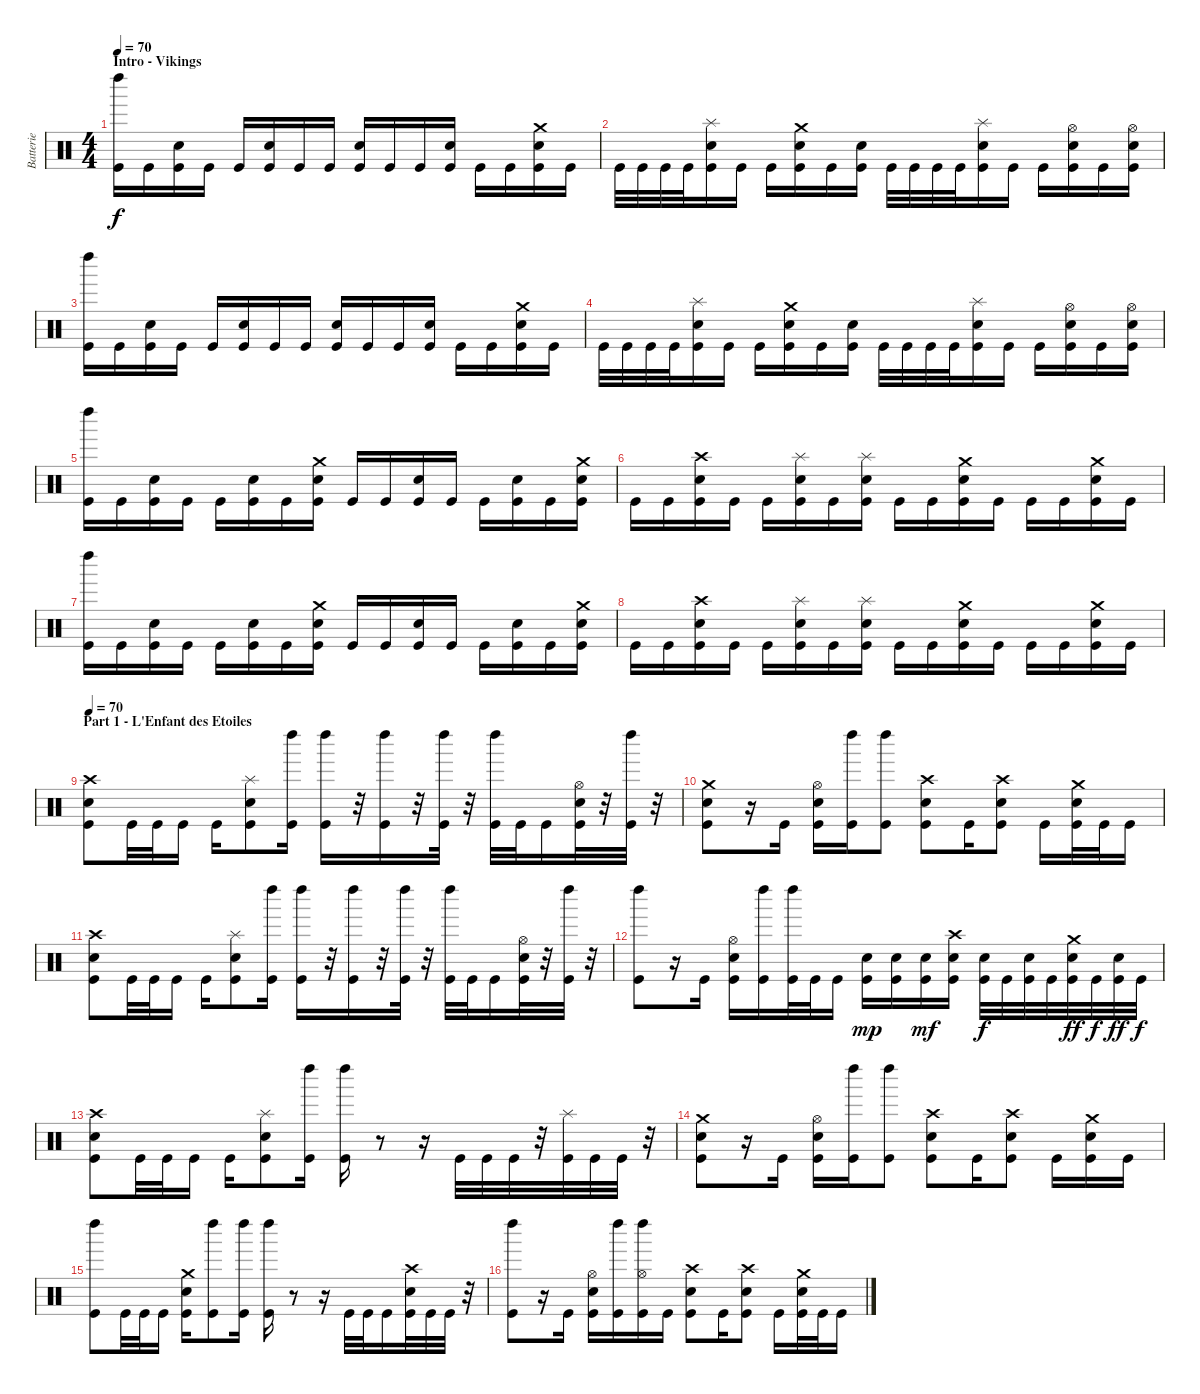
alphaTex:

\track ("Batterie" "Batterie") {instrument percussion}
\staff {score}
\articulation defaults
\ts (4 4)
\section ("" "Intro - Vikings")
\tempo 70
\tempo 110
\tempo 70
\clef neutral
\ks c
("Kick (hit)" "Left Maraca (hit)").16{dy f} "Kick (hit)".16 ("Kick (hit)" "Electric Snare (hit)").16 "Kick (hit)".16 "Kick (hit)".16 ("Kick (hit)" "Electric Snare (hit)").16 "Kick (hit)".16 "Kick (hit)".16 ("Kick (hit)" "Electric Snare (hit)").16 "Kick (hit)".16 "Kick (hit)".16 ("Kick (hit)" "Electric Snare (hit)").16 "Kick (hit)".16 "Kick (hit)".16 ("Kick (hit)" "Electric Snare (hit)" "Crash medium (hit)").16 "Kick (hit)".16 |
"Kick (hit)".32 "Kick (hit)".32 "Kick (hit)".32 "Kick (hit)".32 ("Kick (hit)" "Electric Snare (hit)" "Splash (hit)").16 "Kick (hit)".16 "Kick (hit)".16 ("Kick (hit)" "Electric Snare (hit)" "Crash medium (hit)").16 "Kick (hit)".16 ("Kick (hit)" "Electric Snare (hit)").16 "Kick (hit)".32 "Kick (hit)".32 "Kick (hit)".32 "Kick (hit)".32 ("Kick (hit)" "Electric Snare (hit)" "Splash (hit)").16 "Kick (hit)".16 "Kick (hit)".16 ("Kick (hit)" "Electric Snare (hit)" "Hi-Hat (open)").16 "Kick (hit)".16 ("Kick (hit)" "Electric Snare (hit)" "Hi-Hat (open)").16 |
("Kick (hit)" "Left Maraca (hit)").16 "Kick (hit)".16 ("Kick (hit)" "Electric Snare (hit)").16 "Kick (hit)".16 "Kick (hit)".16 ("Kick (hit)" "Electric Snare (hit)").16 "Kick (hit)".16 "Kick (hit)".16 ("Kick (hit)" "Electric Snare (hit)").16 "Kick (hit)".16 "Kick (hit)".16 ("Kick (hit)" "Electric Snare (hit)").16 "Kick (hit)".16 "Kick (hit)".16 ("Kick (hit)" "Electric Snare (hit)" "Crash medium (hit)").16 "Kick (hit)".16 |
"Kick (hit)".32 "Kick (hit)".32 "Kick (hit)".32 "Kick (hit)".32 ("Kick (hit)" "Electric Snare (hit)" "Splash (hit)").16 "Kick (hit)".16 "Kick (hit)".16 ("Kick (hit)" "Electric Snare (hit)" "Crash medium (hit)").16 "Kick (hit)".16 ("Kick (hit)" "Electric Snare (hit)").16 "Kick (hit)".32 "Kick (hit)".32 "Kick (hit)".32 "Kick (hit)".32 ("Kick (hit)" "Electric Snare (hit)" "Splash (hit)").16 "Kick (hit)".16 "Kick (hit)".16 ("Kick (hit)" "Electric Snare (hit)" "Hi-Hat (open)").16 "Kick (hit)".16 ("Kick (hit)" "Electric Snare (hit)" "Hi-Hat (open)").16 |
("Kick (hit)" "Left Maraca (hit)").16 "Kick (hit)".16 ("Kick (hit)" "Electric Snare (hit)").16 "Kick (hit)".16 "Kick (hit)".16 ("Kick (hit)" "Electric Snare (hit)").16 "Kick (hit)".16 ("Kick (hit)" "Electric Snare (hit)" "Crash medium (hit)").16 "Kick (hit)".16 "Kick (hit)".16 ("Kick (hit)" "Electric Snare (hit)").16 "Kick (hit)".16 "Kick (hit)".16 ("Kick (hit)" "Electric Snare (hit)").16 "Kick (hit)".16 ("Kick (hit)" "Electric Snare (hit)" "Crash medium (hit)").16 |
"Kick (hit)".16 "Kick (hit)".16 ("Kick (hit)" "Electric Snare (hit)" "Crash high (hit)").16 "Kick (hit)".16 "Kick (hit)".16 ("Kick (hit)" "Electric Snare (hit)" "Splash (hit)").16 "Kick (hit)".16 ("Kick (hit)" "Electric Snare (hit)" "Splash (hit)").16 "Kick (hit)".16 "Kick (hit)".16 ("Kick (hit)" "Electric Snare (hit)" "Crash medium (hit)").16 "Kick (hit)".16 "Kick (hit)".16 "Kick (hit)".16 ("Kick (hit)" "Electric Snare (hit)" "Crash medium (hit)").16 "Kick (hit)".16 |
("Kick (hit)" "Left Maraca (hit)").16 "Kick (hit)".16 ("Kick (hit)" "Electric Snare (hit)").16 "Kick (hit)".16 "Kick (hit)".16 ("Kick (hit)" "Electric Snare (hit)").16 "Kick (hit)".16 ("Kick (hit)" "Electric Snare (hit)" "Crash medium (hit)").16 "Kick (hit)".16 "Kick (hit)".16 ("Kick (hit)" "Electric Snare (hit)").16 "Kick (hit)".16 "Kick (hit)".16 ("Kick (hit)" "Electric Snare (hit)").16 "Kick (hit)".16 ("Kick (hit)" "Electric Snare (hit)" "Crash medium (hit)").16 |
"Kick (hit)".16 "Kick (hit)".16 ("Kick (hit)" "Electric Snare (hit)" "Crash high (hit)").16 "Kick (hit)".16 "Kick (hit)".16 ("Kick (hit)" "Electric Snare (hit)" "Splash (hit)").16 "Kick (hit)".16 ("Kick (hit)" "Electric Snare (hit)" "Splash (hit)").16 "Kick (hit)".16 "Kick (hit)".16 ("Kick (hit)" "Electric Snare (hit)" "Crash medium (hit)").16 "Kick (hit)".16 "Kick (hit)".16 "Kick (hit)".16 ("Kick (hit)" "Electric Snare (hit)" "Crash medium (hit)").16 "Kick (hit)".16 |
\section ("" "Part 1 - L'Enfant des Etoiles")
\tempo 70
("Kick (hit)" "Electric Snare (hit)" "Crash high (hit)").8 "Kick (hit)".32 "Kick (hit)".32 "Kick (hit)".16 "Kick (hit)".16 ("Kick (hit)" "Electric Snare (hit)" "Splash (hit)").8 ("Kick (hit)" "Left Maraca (hit)").16 ("Kick (hit)" "Left Maraca (hit)").16 r.32 ("Kick (hit)" "Left Maraca (hit)").16 r.32 ("Kick (hit)" "Left Maraca (hit)").32 r.32 ("Kick (hit)" "Left Maraca (hit)").32 "Kick (hit)".32 "Kick (hit)".16 ("Kick (hit)" "Electric Snare (hit)" "Hi-Hat (open)").32 r.32 ("Kick (hit)" "Left Maraca (hit)").32 r.32 |
("Kick (hit)" "Electric Snare (hit)" "Crash medium (hit)").8 r.16 "Kick (hit)".16 ("Kick (hit)" "Electric Snare (hit)" "Hi-Hat (open)").16 ("Kick (hit)" "Left Maraca (hit)").16 ("Kick (hit)" "Left Maraca (hit)").8 ("Kick (hit)" "Electric Snare (hit)" "Crash high (hit)").8 "Kick (hit)".16 ("Kick (hit)" "Electric Snare (hit)" "Crash high (hit)").8 "Kick (hit)".16 ("Kick (hit)" "Electric Snare (hit)" "Crash medium (hit)").32 "Kick (hit)".32 "Kick (hit)".16 |
("Kick (hit)" "Electric Snare (hit)" "Crash high (hit)").8 "Kick (hit)".32 "Kick (hit)".32 "Kick (hit)".16 "Kick (hit)".16 ("Kick (hit)" "Electric Snare (hit)" "Splash (hit)").8 ("Kick (hit)" "Left Maraca (hit)").16 ("Kick (hit)" "Left Maraca (hit)").16 r.32 ("Kick (hit)" "Left Maraca (hit)").16 r.32 ("Kick (hit)" "Left Maraca (hit)").32 r.32 ("Kick (hit)" "Left Maraca (hit)").32 "Kick (hit)".32 "Kick (hit)".16 ("Kick (hit)" "Electric Snare (hit)" "Hi-Hat (open)").32 r.32 ("Kick (hit)" "Left Maraca (hit)").32 r.32 |
("Kick (hit)" "Left Maraca (hit)").8 r.16 "Kick (hit)".16 ("Kick (hit)" "Electric Snare (hit)" "Hi-Hat (open)").16 ("Kick (hit)" "Left Maraca (hit)").16 ("Kick (hit)" "Left Maraca (hit)").32 "Kick (hit)".32 "Kick (hit)".16 ("Kick (hit)" "Electric Snare (hit)").16{dy mp} ("Kick (hit)" "Electric Snare (hit)").16 ("Kick (hit)" "Electric Snare (hit)").16{dy mf} ("Kick (hit)" "Electric Snare (hit)" "Crash high (hit)").16 ("Kick (hit)" "Electric Snare (hit)").32{dy f} "Kick (hit)".32 ("Kick (hit)" "Electric Snare (hit)").32 "Kick (hit)".32 ("Kick (hit)" "Electric Snare (hit)" "Crash medium (hit)").32{dy ff} "Kick (hit)".32{dy f} ("Kick (hit)" "Electric Snare (hit)").32{dy ff} "Kick (hit)".32{dy f} |
("Kick (hit)" "Electric Snare (hit)" "Crash high (hit)").8 "Kick (hit)".32 "Kick (hit)".32 "Kick (hit)".16 "Kick (hit)".16 ("Kick (hit)" "Electric Snare (hit)" "Splash (hit)").8 ("Kick (hit)" "Left Maraca (hit)").16 ("Kick (hit)" "Left Maraca (hit)").16 r.8 r.16 "Kick (hit)".32 "Kick (hit)".32 "Kick (hit)".32 r.32 ("Kick (hit)" "Splash (hit)").32 "Kick (hit)".32 "Kick (hit)".32 r.32 |
("Kick (hit)" "Electric Snare (hit)" "Crash medium (hit)").8 r.16 "Kick (hit)".16 ("Kick (hit)" "Electric Snare (hit)" "Hi-Hat (open)").16 ("Kick (hit)" "Left Maraca (hit)").16 ("Kick (hit)" "Left Maraca (hit)").8 ("Kick (hit)" "Electric Snare (hit)" "Crash high (hit)").8 "Kick (hit)".16 ("Kick (hit)" "Electric Snare (hit)" "Crash high (hit)").8 "Kick (hit)".16 ("Kick (hit)" "Electric Snare (hit)" "Crash medium (hit)").16 "Kick (hit)".16 |
("Kick (hit)" "Left Maraca (hit)").8 "Kick (hit)".32 "Kick (hit)".32 "Kick (hit)".16 ("Kick (hit)" "Electric Snare (hit)" "Crash medium (hit)").16 ("Kick (hit)" "Left Maraca (hit)").8 ("Kick (hit)" "Left Maraca (hit)").16 ("Kick (hit)" "Left Maraca (hit)").16 r.8 r.16 "Kick (hit)".32 "Kick (hit)".32 "Kick (hit)".16 ("Kick (hit)" "Electric Snare (hit)" "Crash high (hit)").32 "Kick (hit)".32 "Kick (hit)".32 r.32 |
("Kick (hit)" "Left Maraca (hit)").8 r.16 "Kick (hit)".16 ("Kick (hit)" "Electric Snare (hit)" "Hi-Hat (open)").16 ("Kick (hit)" "Left Maraca (hit)").16 ("Kick (hit)" "Left Maraca (hit)" "Hi-Hat (open)").16 "Kick (hit)".16 ("Kick (hit)" "Electric Snare (hit)" "Crash high (hit)").8 "Kick (hit)".16 ("Kick (hit)" "Electric Snare (hit)" "Crash high (hit)").8 "Kick (hit)".16 ("Kick (hit)" "Electric Snare (hit)" "Crash medium (hit)").32 "Kick (hit)".32 "Kick (hit)".16
